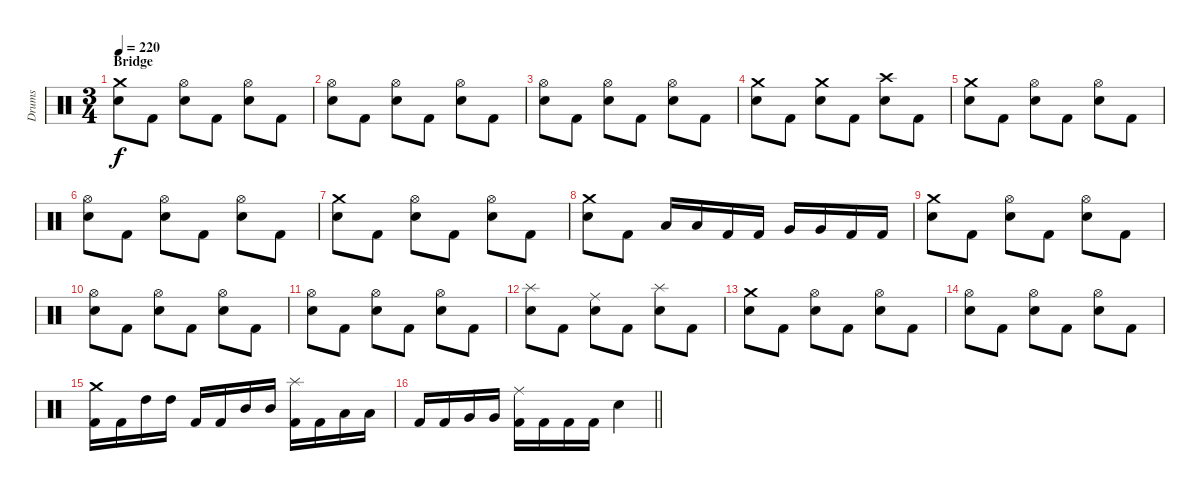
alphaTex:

\track ("Drums" "Drums") {instrument percussion}
\staff {score}
\articulation defaults
\ts (3 4)
\section ("" "Bridge")
\tempo 220
\clef neutral
\ks c
("Crash medium (hit)" "Electric Snare (hit)").8{dy f} "Kick (hit) 2".8 ("Hi-Hat (open)" "Electric Snare (hit)").8 "Kick (hit) 2".8 ("Hi-Hat (open)" "Electric Snare (hit)").8 "Kick (hit) 2".8 |
("Hi-Hat (open)" "Electric Snare (hit)").8 "Kick (hit) 2".8 ("Hi-Hat (open)" "Electric Snare (hit)").8 "Kick (hit) 2".8 ("Hi-Hat (open)" "Electric Snare (hit)").8 "Kick (hit) 2".8 |
("Hi-Hat (open)" "Electric Snare (hit)").8 "Kick (hit) 2".8 ("Hi-Hat (open)" "Electric Snare (hit)").8 "Kick (hit) 2".8 ("Hi-Hat (open)" "Electric Snare (hit)").8 "Kick (hit) 2".8 |
("Crash medium (hit)" "Electric Snare (hit)").8 "Kick (hit) 2".8 ("Crash medium (hit)" "Electric Snare (hit)").8 "Kick (hit) 2".8 ("Crash high (hit)" "Electric Snare (hit)").8 "Kick (hit) 2".8 |
("Crash medium (hit)" "Electric Snare (hit)").8 "Kick (hit) 2".8 ("Hi-Hat (open)" "Electric Snare (hit)").8 "Kick (hit) 2".8 ("Hi-Hat (open)" "Electric Snare (hit)").8 "Kick (hit) 2".8 |
("Hi-Hat (open)" "Electric Snare (hit)").8 "Kick (hit) 2".8 ("Hi-Hat (open)" "Electric Snare (hit)").8 "Kick (hit) 2".8 ("Hi-Hat (open)" "Electric Snare (hit)").8 "Kick (hit) 2".8 |
("Crash medium (hit)" "Electric Snare (hit)").8 "Kick (hit) 2".8 ("Hi-Hat (open)" "Electric Snare (hit)").8 "Kick (hit) 2".8 ("Hi-Hat (open)" "Electric Snare (hit)").8 "Kick (hit) 2".8 |
("Crash medium (hit)" "Electric Snare (hit)").8 "Kick (hit) 2".8 "Low Tom (hit)".16 "Low Tom (hit)".16 "Kick (hit) 2".16 "Kick (hit) 2".16 "Very Low Tom (hit)".16 "Very Low Tom (hit)".16 "Kick (hit) 2".16 "Kick (hit) 2".16 |
("Crash medium (hit)" "Electric Snare (hit)").8 "Kick (hit) 2".8 ("Hi-Hat (open)" "Electric Snare (hit)").8 "Kick (hit) 2".8 ("Hi-Hat (open)" "Electric Snare (hit)").8 "Kick (hit) 2".8 |
("Hi-Hat (open)" "Electric Snare (hit)").8 "Kick (hit) 2".8 ("Hi-Hat (open)" "Electric Snare (hit)").8 "Kick (hit) 2".8 ("Hi-Hat (open)" "Electric Snare (hit)").8 "Kick (hit) 2".8 |
("Hi-Hat (open)" "Electric Snare (hit)").8 "Kick (hit) 2".8 ("Hi-Hat (open)" "Electric Snare (hit)").8 "Kick (hit) 2".8 ("Hi-Hat (open)" "Electric Snare (hit)").8 "Kick (hit) 2".8 |
("Splash (hit)" "Electric Snare (hit)").8 "Kick (hit) 2".8 ("Ride (middle)" "Electric Snare (hit)").8 "Kick (hit) 2".8 ("Splash (hit)" "Electric Snare (hit)").8 "Kick (hit) 2".8 |
("Crash medium (hit)" "Electric Snare (hit)").8 "Kick (hit) 2".8 ("Hi-Hat (open)" "Electric Snare (hit)").8 "Kick (hit) 2".8 ("Hi-Hat (open)" "Electric Snare (hit)").8 "Kick (hit) 2".8 |
("Hi-Hat (open)" "Electric Snare (hit)").8 "Kick (hit) 2".8 ("Hi-Hat (open)" "Electric Snare (hit)").8 "Kick (hit) 2".8 ("Hi-Hat (open)" "Electric Snare (hit)").8 "Kick (hit) 2".8 |
("Crash medium (hit)" "Kick (hit) 2").16 "Kick (hit) 2".16 "High Tom (hit)".16 "High Tom (hit)".16 "Kick (hit) 2".16 "Kick (hit) 2".16 "Mid Tom (hit)".16 "Mid Tom (hit)".16 ("Splash (hit)" "Kick (hit) 2").16 "Kick (hit) 2".16 "Low Tom (hit)".16 "Low Tom (hit)".16 |
\barLineRight lightlight "Kick (hit) 2".16 "Kick (hit) 2".16 "Very Low Tom (hit)".16 "Very Low Tom (hit)".16
("Ride (middle)" "Kick (hit) 2").16 "Kick (hit) 2".16 "Kick (hit) 2".16 "Kick (hit) 2".16 "Electric Snare (hit)".4
